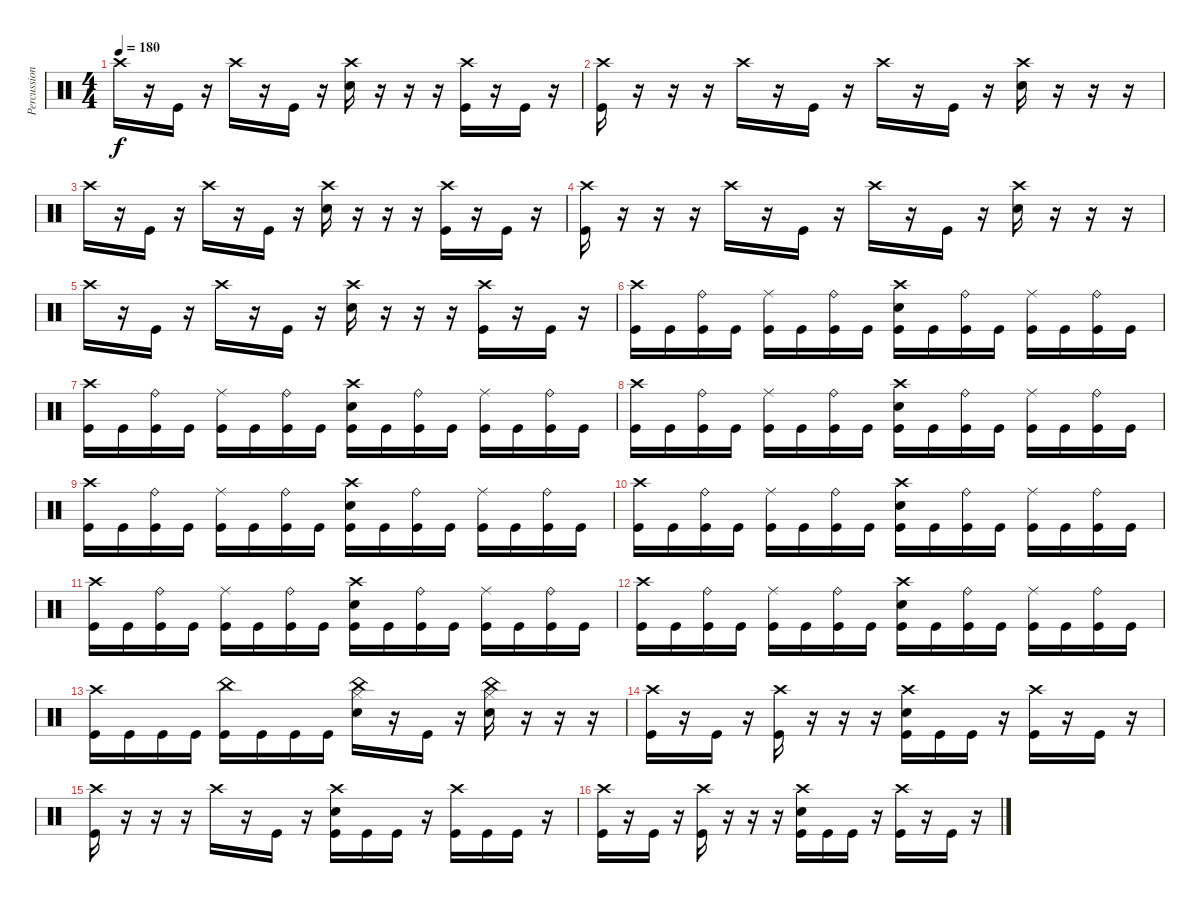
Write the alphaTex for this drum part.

\track ("Percussion" "Percussion") {instrument percussion}
\staff {score}
\articulation defaults
\ts (4 4)
\tempo 180
\clef neutral
\ks c "Crash high (hit)".16{dy f}
r.16 "Kick (hit)".16 r.16 "Crash high (hit)".16 r.16 "Kick (hit)".16 r.16 ("Crash high (hit)" "Electric Snare (hit)").16 r.16 r.16 r.16 ("Crash high (hit)" "Kick (hit)").16 r.16 "Kick (hit)".16 r.16 |
("Crash high (hit)" "Kick (hit)").16 r.16 r.16 r.16 "Crash high (hit)".16 r.16 "Kick (hit)".16 r.16 "Crash high (hit)".16 r.16 "Kick (hit)".16 r.16 ("Crash high (hit)" "Electric Snare (hit)").16 r.16 r.16 r.16 |
"Crash high (hit)".16 r.16 "Kick (hit)".16 r.16 "Crash high (hit)".16 r.16 "Kick (hit)".16 r.16 ("Crash high (hit)" "Electric Snare (hit)").16 r.16 r.16 r.16 ("Crash high (hit)" "Kick (hit)").16 r.16 "Kick (hit)".16 r.16 |
("Crash high (hit)" "Kick (hit)").16 r.16 r.16 r.16 "Crash high (hit)".16 r.16 "Kick (hit)".16 r.16 "Crash high (hit)".16 r.16 "Kick (hit)".16 r.16 ("Crash high (hit)" "Electric Snare (hit)").16 r.16 r.16 r.16 |
"Crash high (hit)".16 r.16 "Kick (hit)".16 r.16 "Crash high (hit)".16 r.16 "Kick (hit)".16 r.16 ("Crash high (hit)" "Electric Snare (hit)").16 r.16 r.16 r.16 ("Crash high (hit)" "Kick (hit)").16 r.16 "Kick (hit)".16 r.16 |
("Crash high (hit)" "Kick (hit)").16 "Kick (hit)".16 ("Ride (bell)" "Kick (hit)").16 "Kick (hit)".16 ("Ride (middle)" "Kick (hit)").16 "Kick (hit)".16 ("Ride (bell)" "Kick (hit)").16 "Kick (hit)".16 ("Electric Snare (hit)" "Crash high (hit)" "Kick (hit)").16 "Kick (hit)".16 ("Ride (bell)" "Kick (hit)").16 "Kick (hit)".16 ("Ride (middle)" "Kick (hit)").16 "Kick (hit)".16 ("Ride (bell)" "Kick (hit)").16 "Kick (hit)".16 |
("Crash high (hit)" "Kick (hit)").16 "Kick (hit)".16 ("Ride (bell)" "Kick (hit)").16 "Kick (hit)".16 ("Ride (middle)" "Kick (hit)").16 "Kick (hit)".16 ("Ride (bell)" "Kick (hit)").16 "Kick (hit)".16 ("Electric Snare (hit)" "Crash high (hit)" "Kick (hit)").16 "Kick (hit)".16 ("Ride (bell)" "Kick (hit)").16 "Kick (hit)".16 ("Ride (middle)" "Kick (hit)").16 "Kick (hit)".16 ("Ride (bell)" "Kick (hit)").16 "Kick (hit)".16 |
("Crash high (hit)" "Kick (hit)").16 "Kick (hit)".16 ("Ride (bell)" "Kick (hit)").16 "Kick (hit)".16 ("Ride (middle)" "Kick (hit)").16 "Kick (hit)".16 ("Ride (bell)" "Kick (hit)").16 "Kick (hit)".16 ("Electric Snare (hit)" "Crash high (hit)" "Kick (hit)").16 "Kick (hit)".16 ("Ride (bell)" "Kick (hit)").16 "Kick (hit)".16 ("Ride (middle)" "Kick (hit)").16 "Kick (hit)".16 ("Ride (bell)" "Kick (hit)").16 "Kick (hit)".16 |
("Crash high (hit)" "Kick (hit)").16 "Kick (hit)".16 ("Ride (bell)" "Kick (hit)").16 "Kick (hit)".16 ("Ride (middle)" "Kick (hit)").16 "Kick (hit)".16 ("Ride (bell)" "Kick (hit)").16 "Kick (hit)".16 ("Electric Snare (hit)" "Crash high (hit)" "Kick (hit)").16 "Kick (hit)".16 ("Ride (bell)" "Kick (hit)").16 "Kick (hit)".16 ("Ride (middle)" "Kick (hit)").16 "Kick (hit)".16 ("Ride (bell)" "Kick (hit)").16 "Kick (hit)".16 |
("Crash high (hit)" "Kick (hit)").16 "Kick (hit)".16 ("Ride (bell)" "Kick (hit)").16 "Kick (hit)".16 ("Ride (middle)" "Kick (hit)").16 "Kick (hit)".16 ("Ride (bell)" "Kick (hit)").16 "Kick (hit)".16 ("Electric Snare (hit)" "Crash high (hit)" "Kick (hit)").16 "Kick (hit)".16 ("Ride (bell)" "Kick (hit)").16 "Kick (hit)".16 ("Ride (middle)" "Kick (hit)").16 "Kick (hit)".16 ("Ride (bell)" "Kick (hit)").16 "Kick (hit)".16 |
("Crash high (hit)" "Kick (hit)").16 "Kick (hit)".16 ("Ride (bell)" "Kick (hit)").16 "Kick (hit)".16 ("Ride (middle)" "Kick (hit)").16 "Kick (hit)".16 ("Ride (bell)" "Kick (hit)").16 "Kick (hit)".16 ("Electric Snare (hit)" "Crash high (hit)" "Kick (hit)").16 "Kick (hit)".16 ("Ride (bell)" "Kick (hit)").16 "Kick (hit)".16 ("Ride (middle)" "Kick (hit)").16 "Kick (hit)".16 ("Ride (bell)" "Kick (hit)").16 "Kick (hit)".16 |
("Crash high (hit)" "Kick (hit)").16 "Kick (hit)".16 ("Ride (bell)" "Kick (hit)").16 "Kick (hit)".16 ("Ride (middle)" "Kick (hit)").16 "Kick (hit)".16 ("Ride (bell)" "Kick (hit)").16 "Kick (hit)".16 ("Electric Snare (hit)" "Crash high (hit)" "Kick (hit)").16 "Kick (hit)".16 ("Ride (bell)" "Kick (hit)").16 "Kick (hit)".16 ("Ride (middle)" "Kick (hit)").16 "Kick (hit)".16 ("Ride (bell)" "Kick (hit)").16 "Kick (hit)".16 |
("Crash high (hit)" "Kick (hit)").16 "Kick (hit)".16 "Kick (hit)".16 "Kick (hit)".16 ("China (hit)" "Kick (hit)").16 "Kick (hit)".16 "Kick (hit)".16 "Kick (hit)".16 ("China (hit)" "Hi-Hat (closed)" "Electric Snare (hit)").16 r.16 "Kick (hit)".16 r.16 ("China (hit)" "Hi-Hat (closed)" "Electric Snare (hit)").16 r.16 r.16 r.16 |
("Crash high (hit)" "Kick (hit)").16 r.16 "Kick (hit)".16 r.16 ("Crash high (hit)" "Kick (hit)").16 r.16 r.16 r.16 ("Crash high (hit)" "Electric Snare (hit)" "Kick (hit)").16 "Kick (hit)".16 "Kick (hit)".16 r.16 ("Crash high (hit)" "Kick (hit)").16 r.16 "Kick (hit)".16 r.16 |
("Crash high (hit)" "Kick (hit)").16 r.16 r.16 r.16 "Crash high (hit)".16 r.16 "Kick (hit)".16 r.16 ("Crash high (hit)" "Electric Snare (hit)" "Kick (hit)").16 "Kick (hit)".16 "Kick (hit)".16 r.16 ("Crash high (hit)" "Kick (hit)").16 "Kick (hit)".16 "Kick (hit)".16 r.16 |
("Crash high (hit)" "Kick (hit)").16 r.16 "Kick (hit)".16 r.16 ("Crash high (hit)" "Kick (hit)").16 r.16 r.16 r.16 ("Crash high (hit)" "Electric Snare (hit)" "Kick (hit)").16 "Kick (hit)".16 "Kick (hit)".16 r.16 ("Crash high (hit)" "Kick (hit)").16 r.16 "Kick (hit)".16 r.16
